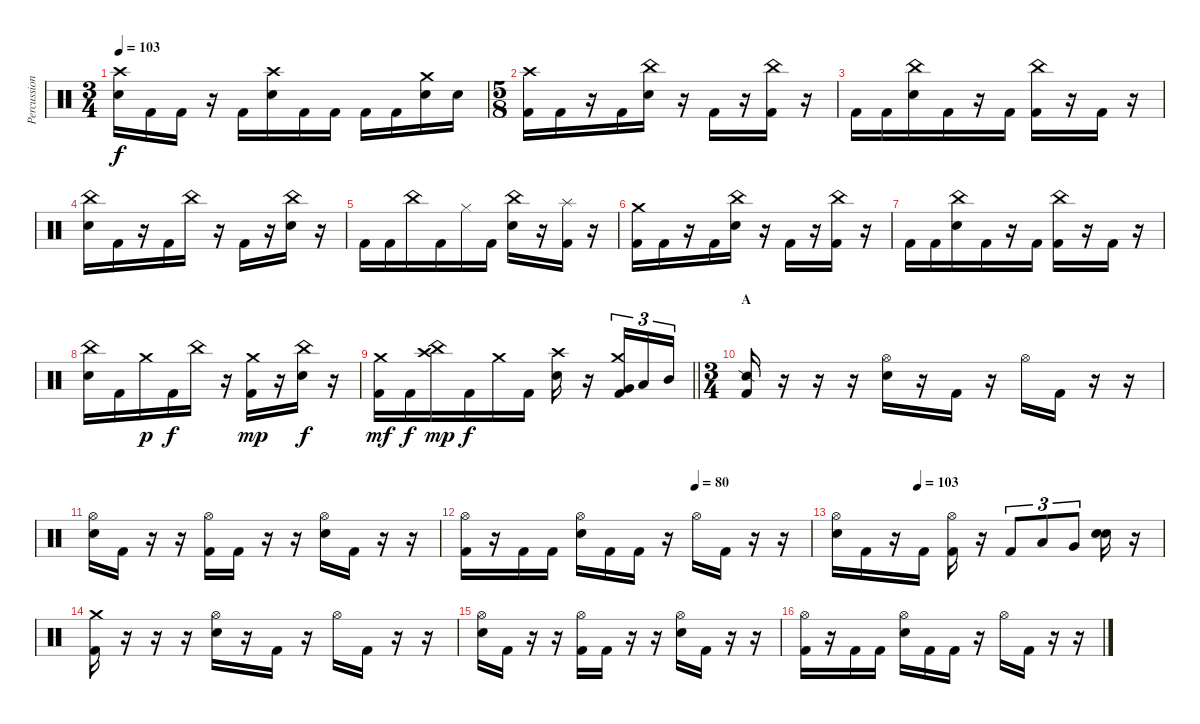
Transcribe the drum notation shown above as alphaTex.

\track ("Percussion" "Percussion") {instrument percussion}
\staff {score}
\articulation defaults
\ts (3 4)
\tempo 103
\clef neutral
\ks c
("Crash high (hit)" "Snare (hit) 2").16{dy f} "Kick (hit) 2".16 "Kick (hit) 2".16 r.16 "Kick (hit) 2".16 ("Crash high (hit)" "Snare (hit) 2").16 "Kick (hit) 2".16 "Kick (hit) 2".16 "Kick (hit) 2".16 "Kick (hit) 2".16 ("Crash medium (hit)" "Snare (hit) 2").16 "Snare (hit) 2".16 |
\ts (5 8)
("Crash high (hit)" "Kick (hit) 2").16 "Kick (hit) 2".16 r.16 "Kick (hit) 2".16 ("China (hit)" "Snare (hit) 2").16 r.16 "Kick (hit) 2".16 r.16 ("China (hit)" "Kick (hit) 2").16 r.16 |
"Kick (hit) 2".16 "Kick (hit) 2".16 ("China (hit)" "Snare (hit) 2").16 "Kick (hit) 2".16 r.16 "Kick (hit) 2".16 ("China (hit)" "Kick (hit) 2").16 r.16 "Kick (hit) 2".16 r.16 |
("China (hit)" "Snare (hit) 2").16 "Kick (hit) 2".16 r.16 "Kick (hit) 2".16 "China (hit)".16 r.16 "Kick (hit) 2".16 r.16 ("China (hit)" "Snare (hit) 2").16 r.16 |
"Kick (hit) 2".16 "Kick (hit) 2".16 "China (hit)".16 "Kick (hit) 2".16 "Hi-Hat (closed)".16 "Kick (hit) 2".16 ("China (hit)" "Snare (hit) 2").16 r.16 ("Splash (hit)" "Kick (hit) 2").16 r.16 |
("Crash medium (hit)" "Kick (hit) 2").16 "Kick (hit) 2".16 r.16 "Kick (hit) 2".16 ("China (hit)" "Snare (hit) 2").16 r.16 "Kick (hit) 2".16 r.16 ("China (hit)" "Kick (hit) 2").16 r.16 |
"Kick (hit) 2".16 "Kick (hit) 2".16 ("China (hit)" "Snare (hit) 2").16 "Kick (hit) 2".16 r.16 "Kick (hit) 2".16 ("China (hit)" "Kick (hit) 2").16 r.16 "Kick (hit) 2".16 r.16 |
("China (hit)" "Snare (hit) 2").16 "Kick (hit) 2".16 "Crash medium (hit)".16{dy p} "Kick (hit) 2".16{dy f} "China (hit)".16 r.16 ("Crash medium (hit)" "Kick (hit) 2").16{dy mp} r.16 ("China (hit)" "Snare (hit) 2").16{dy f} r.16 |
\barLineRight lightlight
("Crash medium (hit)" "Kick (hit) 2").16{dy mf} "Kick (hit) 2".16{dy f} ("Crash high (hit)" "China (hit)").16{dy mp} "Kick (hit) 2".16{dy f} "Crash medium (hit)".16 "Kick (hit) 2".16 ("Crash high (hit)" "Snare (hit) 2").16 r.16 ("Crash medium (hit)" "Very Low Tom (hit)" "Kick (hit) 2").16{tu (3 2)} "Low Tom (hit)".16{tu (3 2)} "Mid Tom (hit)".16{tu (3 2)} |
\ts (3 4)
\section ("" "A")
("Snare (side stick) 2" "Kick (hit) 2").16 r.16 r.16 r.16 ("Hi-Hat (open)" "Snare (hit) 2").16 r.16 "Kick (hit) 2".16 r.16 "Hi-Hat (open)".16 "Kick (hit) 2".16 r.16 r.16 |
("Hi-Hat (open)" "Snare (hit) 2").16 "Kick (hit) 2".16 r.16 r.16 ("Hi-Hat (open)" "Kick (hit) 2").16 "Kick (hit) 2".16 r.16 r.16 ("Hi-Hat (open)" "Snare (hit) 2").16 "Kick (hit) 2".16 r.16 r.16 |
\tempo (80 0.6666666666666666)
("Hi-Hat (open)" "Kick (hit) 2").16 r.16 "Kick (hit) 2".16 "Kick (hit) 2".16 ("Hi-Hat (open)" "Snare (hit) 2").16 "Kick (hit) 2".16 "Kick (hit) 2".16 r.16 "Hi-Hat (open)".16 "Kick (hit) 2".16 r.16 r.16 |
\tempo (103 0.25)
("Hi-Hat (open)" "Snare (hit) 2").16 "Kick (hit) 2".16 r.16 "Kick (hit) 2".16 ("Hi-Hat (open)" "Kick (hit) 2").16 r.16 "Kick (hit) 2".8{tu (3 2)} "Low Tom (hit)".8{tu (3 2)} "Very Low Tom (hit)".8{tu (3 2)} ("Snare (hit)" "Snare (hit) 2").16 r.16 |
("Crash medium (hit)" "Kick (hit) 2").16 r.16 r.16 r.16 ("Hi-Hat (open)" "Snare (hit) 2").16 r.16 "Kick (hit) 2".16 r.16 "Hi-Hat (open)".16 "Kick (hit) 2".16 r.16 r.16 |
("Hi-Hat (open)" "Snare (hit) 2").16 "Kick (hit) 2".16 r.16 r.16 ("Hi-Hat (open)" "Kick (hit) 2").16 "Kick (hit) 2".16 r.16 r.16 ("Hi-Hat (open)" "Snare (hit) 2").16 "Kick (hit) 2".16 r.16 r.16 |
("Hi-Hat (open)" "Kick (hit) 2").16 r.16 "Kick (hit) 2".16 "Kick (hit) 2".16 ("Hi-Hat (open)" "Snare (hit) 2").16 "Kick (hit) 2".16 "Kick (hit) 2".16 r.16 "Hi-Hat (open)".16 "Kick (hit) 2".16 r.16 r.16
